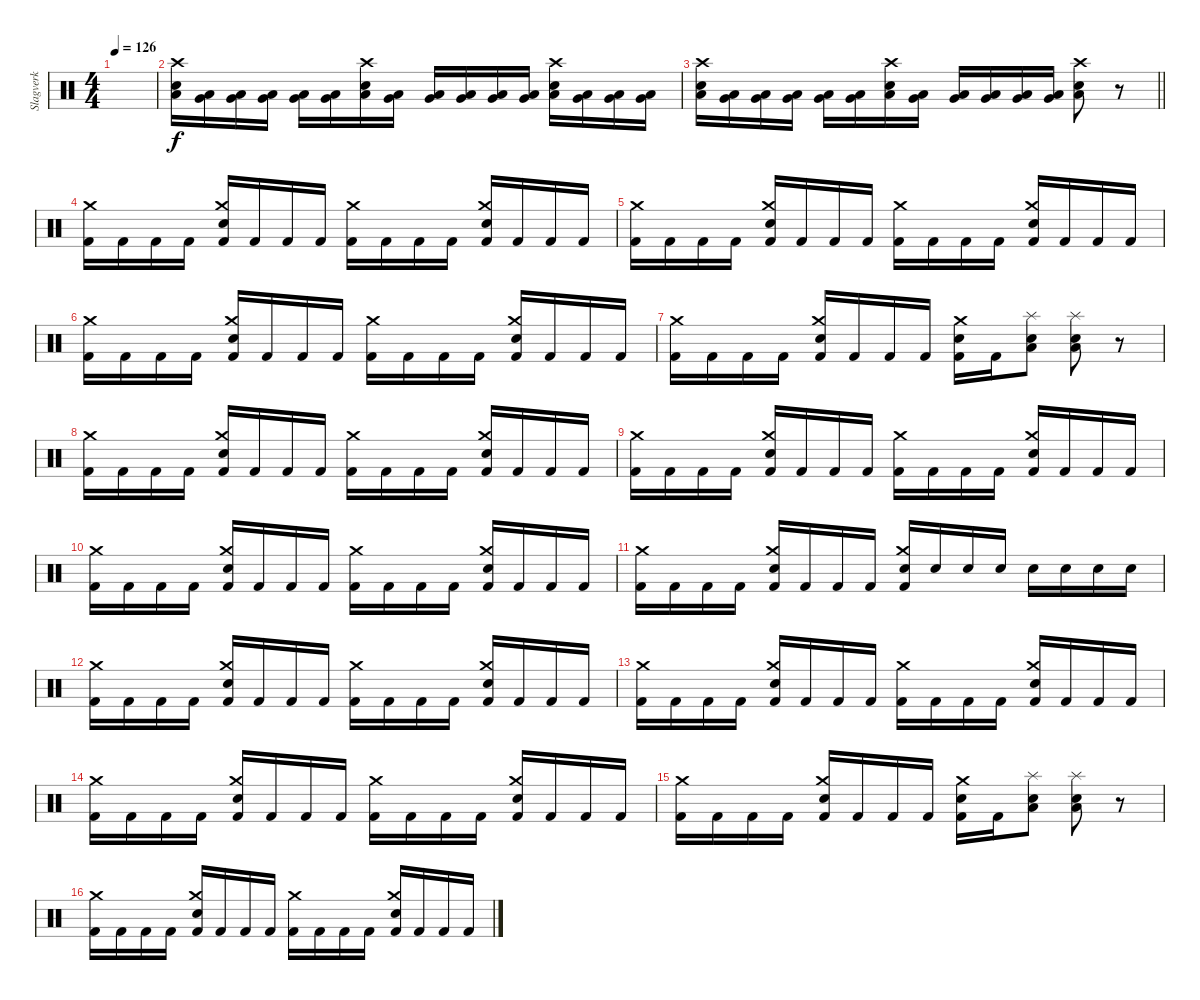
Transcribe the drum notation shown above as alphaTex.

\track ("Slagverk" "Slagverk") {instrument percussion}
\staff {score}
\articulation defaults
\ts (4 4)
\tempo 126
\clef neutral
\ks c
|
("Crash high (hit)" "Electric Snare (hit)" "Low Floor Tom (hit)").16 ("Low Floor Tom (hit)" "Very Low Tom (hit)").16 ("Low Floor Tom (hit)" "Very Low Tom (hit)").16 ("Very Low Tom (hit)" "Low Floor Tom (hit)").16 ("Low Floor Tom (hit)" "Very Low Tom (hit)").16 ("Low Floor Tom (hit)" "Very Low Tom (hit)").16 ("Crash high (hit)" "Electric Snare (hit)" "Low Floor Tom (hit)").16 ("Low Floor Tom (hit)" "Very Low Tom (hit)").16 ("Low Floor Tom (hit)" "Very Low Tom (hit)").16 ("Very Low Tom (hit)" "Low Floor Tom (hit)").16 ("Low Floor Tom (hit)" "Very Low Tom (hit)").16 ("Low Floor Tom (hit)" "Very Low Tom (hit)").16 ("Crash high (hit)" "Electric Snare (hit)" "Low Floor Tom (hit)").16 ("Low Floor Tom (hit)" "Very Low Tom (hit)").16 ("Low Floor Tom (hit)" "Very Low Tom (hit)").16 ("Low Floor Tom (hit)" "Very Low Tom (hit)").16 |
\barLineRight lightlight
("Crash high (hit)" "Electric Snare (hit)" "Low Floor Tom (hit)").16 ("Low Floor Tom (hit)" "Very Low Tom (hit)").16 ("Low Floor Tom (hit)" "Very Low Tom (hit)").16 ("Very Low Tom (hit)" "Low Floor Tom (hit)").16 ("Low Floor Tom (hit)" "Very Low Tom (hit)").16 ("Low Floor Tom (hit)" "Very Low Tom (hit)").16 ("Crash high (hit)" "Electric Snare (hit)" "Low Floor Tom (hit)").16 ("Low Floor Tom (hit)" "Very Low Tom (hit)").16 ("Low Floor Tom (hit)" "Very Low Tom (hit)").16 ("Very Low Tom (hit)" "Low Floor Tom (hit)").16 ("Low Floor Tom (hit)" "Very Low Tom (hit)").16 ("Low Floor Tom (hit)" "Very Low Tom (hit)").16 ("Crash high (hit)" "Electric Snare (hit)" "Low Floor Tom (hit)").8 r.8 |
("Crash medium (hit)" "Kick (hit) 2").16 "Kick (hit) 2".16 "Kick (hit) 2".16 "Kick (hit) 2".16 ("Electric Snare (hit)" "Kick (hit) 2" "Crash medium (hit)").16 "Kick (hit) 2".16 "Kick (hit) 2".16 "Kick (hit) 2".16 ("Crash medium (hit)" "Kick (hit) 2").16 "Kick (hit) 2".16 "Kick (hit) 2".16 "Kick (hit) 2".16 ("Electric Snare (hit)" "Kick (hit) 2" "Crash medium (hit)").16 "Kick (hit) 2".16 "Kick (hit) 2".16 "Kick (hit) 2".16 |
("Crash medium (hit)" "Kick (hit) 2").16 "Kick (hit) 2".16 "Kick (hit) 2".16 "Kick (hit) 2".16 ("Electric Snare (hit)" "Kick (hit) 2" "Crash medium (hit)").16 "Kick (hit) 2".16 "Kick (hit) 2".16 "Kick (hit) 2".16 ("Crash medium (hit)" "Kick (hit) 2").16 "Kick (hit) 2".16 "Kick (hit) 2".16 "Kick (hit) 2".16 ("Electric Snare (hit)" "Kick (hit) 2" "Crash medium (hit)").16 "Kick (hit) 2".16 "Kick (hit) 2".16 "Kick (hit) 2".16 |
("Crash medium (hit)" "Kick (hit) 2").16 "Kick (hit) 2".16 "Kick (hit) 2".16 "Kick (hit) 2".16 ("Electric Snare (hit)" "Kick (hit) 2" "Crash medium (hit)").16 "Kick (hit) 2".16 "Kick (hit) 2".16 "Kick (hit) 2".16 ("Crash medium (hit)" "Kick (hit) 2").16 "Kick (hit) 2".16 "Kick (hit) 2".16 "Kick (hit) 2".16 ("Electric Snare (hit)" "Kick (hit) 2" "Crash medium (hit)").16 "Kick (hit) 2".16 "Kick (hit) 2".16 "Kick (hit) 2".16 |
("Crash medium (hit)" "Kick (hit) 2").16 "Kick (hit) 2".16 "Kick (hit) 2".16 "Kick (hit) 2".16 ("Electric Snare (hit)" "Kick (hit) 2" "Crash medium (hit)").16 "Kick (hit) 2".16 "Kick (hit) 2".16 "Kick (hit) 2".16 ("Electric Snare (hit)" "Kick (hit) 2" "Crash medium (hit)").16 "Kick (hit) 2".16 ("Electric Snare (hit)" "Low Floor Tom (hit)" "Splash (hit)").8 ("Electric Snare (hit)" "Low Floor Tom (hit)" "Splash (hit)").8 r.8 |
("Crash medium (hit)" "Kick (hit) 2").16 "Kick (hit) 2".16 "Kick (hit) 2".16 "Kick (hit) 2".16 ("Electric Snare (hit)" "Kick (hit) 2" "Crash medium (hit)").16 "Kick (hit) 2".16 "Kick (hit) 2".16 "Kick (hit) 2".16 ("Crash medium (hit)" "Kick (hit) 2").16 "Kick (hit) 2".16 "Kick (hit) 2".16 "Kick (hit) 2".16 ("Electric Snare (hit)" "Kick (hit) 2" "Crash medium (hit)").16 "Kick (hit) 2".16 "Kick (hit) 2".16 "Kick (hit) 2".16 |
("Crash medium (hit)" "Kick (hit) 2").16 "Kick (hit) 2".16 "Kick (hit) 2".16 "Kick (hit) 2".16 ("Electric Snare (hit)" "Kick (hit) 2" "Crash medium (hit)").16 "Kick (hit) 2".16 "Kick (hit) 2".16 "Kick (hit) 2".16 ("Crash medium (hit)" "Kick (hit) 2").16 "Kick (hit) 2".16 "Kick (hit) 2".16 "Kick (hit) 2".16 ("Electric Snare (hit)" "Kick (hit) 2" "Crash medium (hit)").16 "Kick (hit) 2".16 "Kick (hit) 2".16 "Kick (hit) 2".16 |
("Crash medium (hit)" "Kick (hit) 2").16 "Kick (hit) 2".16 "Kick (hit) 2".16 "Kick (hit) 2".16 ("Electric Snare (hit)" "Kick (hit) 2" "Crash medium (hit)").16 "Kick (hit) 2".16 "Kick (hit) 2".16 "Kick (hit) 2".16 ("Crash medium (hit)" "Kick (hit) 2").16 "Kick (hit) 2".16 "Kick (hit) 2".16 "Kick (hit) 2".16 ("Electric Snare (hit)" "Kick (hit) 2" "Crash medium (hit)").16 "Kick (hit) 2".16 "Kick (hit) 2".16 "Kick (hit) 2".16 |
("Crash medium (hit)" "Kick (hit) 2").16 "Kick (hit) 2".16 "Kick (hit) 2".16 "Kick (hit) 2".16 ("Electric Snare (hit)" "Kick (hit) 2" "Crash medium (hit)").16 "Kick (hit) 2".16 "Kick (hit) 2".16 "Kick (hit) 2".16 ("Electric Snare (hit)" "Kick (hit) 2" "Crash medium (hit)").16 "Electric Snare (hit)".16 "Electric Snare (hit)".16 "Electric Snare (hit)".16 "Electric Snare (hit)".16 "Electric Snare (hit)".16 "Electric Snare (hit)".16 "Electric Snare (hit)".16 |
("Crash medium (hit)" "Kick (hit) 2").16 "Kick (hit) 2".16 "Kick (hit) 2".16 "Kick (hit) 2".16 ("Electric Snare (hit)" "Kick (hit) 2" "Crash medium (hit)").16 "Kick (hit) 2".16 "Kick (hit) 2".16 "Kick (hit) 2".16 ("Crash medium (hit)" "Kick (hit) 2").16 "Kick (hit) 2".16 "Kick (hit) 2".16 "Kick (hit) 2".16 ("Electric Snare (hit)" "Kick (hit) 2" "Crash medium (hit)").16 "Kick (hit) 2".16 "Kick (hit) 2".16 "Kick (hit) 2".16 |
("Crash medium (hit)" "Kick (hit) 2").16 "Kick (hit) 2".16 "Kick (hit) 2".16 "Kick (hit) 2".16 ("Electric Snare (hit)" "Kick (hit) 2" "Crash medium (hit)").16 "Kick (hit) 2".16 "Kick (hit) 2".16 "Kick (hit) 2".16 ("Crash medium (hit)" "Kick (hit) 2").16 "Kick (hit) 2".16 "Kick (hit) 2".16 "Kick (hit) 2".16 ("Electric Snare (hit)" "Kick (hit) 2" "Crash medium (hit)").16 "Kick (hit) 2".16 "Kick (hit) 2".16 "Kick (hit) 2".16 |
("Crash medium (hit)" "Kick (hit) 2").16 "Kick (hit) 2".16 "Kick (hit) 2".16 "Kick (hit) 2".16 ("Electric Snare (hit)" "Kick (hit) 2" "Crash medium (hit)").16 "Kick (hit) 2".16 "Kick (hit) 2".16 "Kick (hit) 2".16 ("Crash medium (hit)" "Kick (hit) 2").16 "Kick (hit) 2".16 "Kick (hit) 2".16 "Kick (hit) 2".16 ("Electric Snare (hit)" "Kick (hit) 2" "Crash medium (hit)").16 "Kick (hit) 2".16 "Kick (hit) 2".16 "Kick (hit) 2".16 |
("Crash medium (hit)" "Kick (hit) 2").16 "Kick (hit) 2".16 "Kick (hit) 2".16 "Kick (hit) 2".16 ("Electric Snare (hit)" "Kick (hit) 2" "Crash medium (hit)").16 "Kick (hit) 2".16 "Kick (hit) 2".16 "Kick (hit) 2".16 ("Electric Snare (hit)" "Kick (hit) 2" "Crash medium (hit)").16 "Kick (hit) 2".16 ("Electric Snare (hit)" "Low Floor Tom (hit)" "Splash (hit)").8 ("Electric Snare (hit)" "Low Floor Tom (hit)" "Splash (hit)").8 r.8 |
("Crash medium (hit)" "Kick (hit) 2").16 "Kick (hit) 2".16 "Kick (hit) 2".16 "Kick (hit) 2".16 ("Electric Snare (hit)" "Kick (hit) 2" "Crash medium (hit)").16 "Kick (hit) 2".16 "Kick (hit) 2".16 "Kick (hit) 2".16 ("Crash medium (hit)" "Kick (hit) 2").16 "Kick (hit) 2".16 "Kick (hit) 2".16 "Kick (hit) 2".16 ("Electric Snare (hit)" "Kick (hit) 2" "Crash medium (hit)").16 "Kick (hit) 2".16 "Kick (hit) 2".16 "Kick (hit) 2".16
